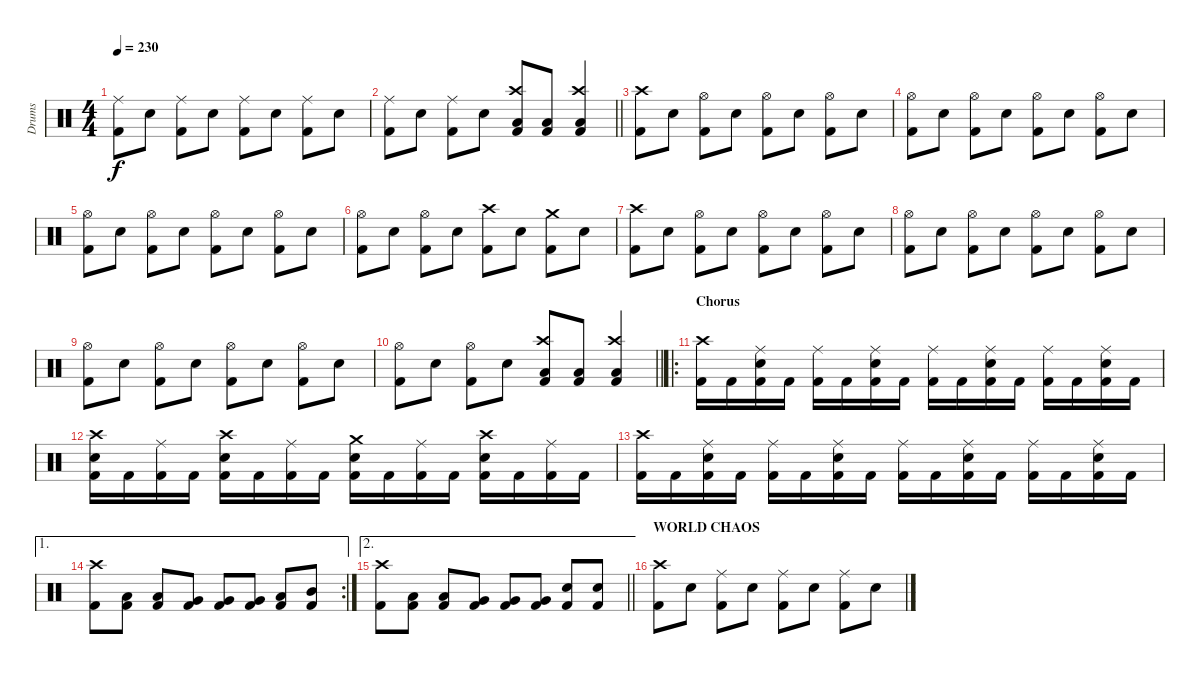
\track ("Drums" "Drums") {instrument percussion}
\staff {score}
\articulation defaults
\ts (4 4)
\tempo 230
\clef neutral
\ks c
("Ride (middle)" "Kick (hit) 2").8{dy f} "Electric Snare (hit)".8 ("Ride (middle)" "Kick (hit) 2").8 "Electric Snare (hit)".8 ("Ride (middle)" "Kick (hit) 2").8 "Electric Snare (hit)".8 ("Ride (middle)" "Kick (hit) 2").8 "Electric Snare (hit)".8 |
\barLineRight lightlight
("Ride (middle)" "Kick (hit) 2").8 "Electric Snare (hit)".8 ("Ride (middle)" "Kick (hit) 2").8 "Electric Snare (hit)".8 ("Crash high (hit)" "Low Tom (hit)" "Kick (hit) 2").8 ("Low Tom (hit)" "Kick (hit) 2").8 ("Crash high (hit)" "Low Tom (hit)" "Kick (hit) 2").4 |
\section ("" "")
("Crash high (hit)" "Kick (hit) 2").8 "Electric Snare (hit)".8 ("Hi-Hat (open)" "Kick (hit) 2").8 "Electric Snare (hit)".8 ("Hi-Hat (open)" "Kick (hit) 2").8 "Electric Snare (hit)".8 ("Hi-Hat (open)" "Kick (hit) 2").8 "Electric Snare (hit)".8 |
("Hi-Hat (open)" "Kick (hit) 2").8 "Electric Snare (hit)".8 ("Hi-Hat (open)" "Kick (hit) 2").8 "Electric Snare (hit)".8 ("Hi-Hat (open)" "Kick (hit) 2").8 "Electric Snare (hit)".8 ("Hi-Hat (open)" "Kick (hit) 2").8 "Electric Snare (hit)".8 |
("Hi-Hat (open)" "Kick (hit) 2").8 "Electric Snare (hit)".8 ("Hi-Hat (open)" "Kick (hit) 2").8 "Electric Snare (hit)".8 ("Hi-Hat (open)" "Kick (hit) 2").8 "Electric Snare (hit)".8 ("Hi-Hat (open)" "Kick (hit) 2").8 "Electric Snare (hit)".8 |
("Hi-Hat (open)" "Kick (hit) 2").8 "Electric Snare (hit)".8 ("Hi-Hat (open)" "Kick (hit) 2").8 "Electric Snare (hit)".8 ("Crash high (hit)" "Kick (hit) 2").8 "Electric Snare (hit)".8 ("Crash medium (hit)" "Kick (hit) 2").8 "Electric Snare (hit)".8 |
("Crash high (hit)" "Kick (hit) 2").8 "Electric Snare (hit)".8 ("Hi-Hat (open)" "Kick (hit) 2").8 "Electric Snare (hit)".8 ("Hi-Hat (open)" "Kick (hit) 2").8 "Electric Snare (hit)".8 ("Hi-Hat (open)" "Kick (hit) 2").8 "Electric Snare (hit)".8 |
("Hi-Hat (open)" "Kick (hit) 2").8 "Electric Snare (hit)".8 ("Hi-Hat (open)" "Kick (hit) 2").8 "Electric Snare (hit)".8 ("Hi-Hat (open)" "Kick (hit) 2").8 "Electric Snare (hit)".8 ("Hi-Hat (open)" "Kick (hit) 2").8 "Electric Snare (hit)".8 |
("Hi-Hat (open)" "Kick (hit) 2").8 "Electric Snare (hit)".8 ("Hi-Hat (open)" "Kick (hit) 2").8 "Electric Snare (hit)".8 ("Hi-Hat (open)" "Kick (hit) 2").8 "Electric Snare (hit)".8 ("Hi-Hat (open)" "Kick (hit) 2").8 "Electric Snare (hit)".8 |
\barLineRight lightlight
("Hi-Hat (open)" "Kick (hit) 2").8 "Electric Snare (hit)".8 ("Hi-Hat (open)" "Kick (hit) 2").8 "Electric Snare (hit)".8 ("Crash high (hit)" "Low Tom (hit)" "Kick (hit) 2").8 ("Low Tom (hit)" "Kick (hit) 2").8 ("Crash high (hit)" "Low Tom (hit)" "Kick (hit) 2").4 |
\ro
\section ("" "Chorus")
("Crash high (hit)" "Kick (hit) 2").16 "Kick (hit) 2".16 ("Ride (middle)" "Electric Snare (hit)" "Kick (hit) 2").16 "Kick (hit) 2".16 ("Ride (middle)" "Kick (hit) 2").16 "Kick (hit) 2".16 ("Ride (middle)" "Electric Snare (hit)" "Kick (hit) 2").16 "Kick (hit) 2".16 ("Ride (middle)" "Kick (hit) 2").16 "Kick (hit) 2".16 ("Ride (middle)" "Electric Snare (hit)" "Kick (hit) 2").16 "Kick (hit) 2".16 ("Ride (middle)" "Kick (hit) 2").16 "Kick (hit) 2".16 ("Ride (middle)" "Electric Snare (hit)" "Kick (hit) 2").16 "Kick (hit) 2".16 |
("Crash high (hit)" "Electric Snare (hit)" "Kick (hit) 2").16 "Kick (hit) 2".16 ("Ride (middle)" "Kick (hit) 2").16 "Kick (hit) 2".16 ("Crash high (hit)" "Electric Snare (hit)" "Kick (hit) 2").16 "Kick (hit) 2".16 ("Ride (middle)" "Kick (hit) 2").16 "Kick (hit) 2".16 ("Crash medium (hit)" "Electric Snare (hit)" "Kick (hit) 2").16 "Kick (hit) 2".16 ("Ride (middle)" "Kick (hit) 2").16 "Kick (hit) 2".16 ("Crash high (hit)" "Electric Snare (hit)" "Kick (hit) 2").16 "Kick (hit) 2".16 ("Ride (middle)" "Kick (hit) 2").16 "Kick (hit) 2".16 |
("Crash high (hit)" "Kick (hit) 2").16 "Kick (hit) 2".16 ("Ride (middle)" "Electric Snare (hit)" "Kick (hit) 2").16 "Kick (hit) 2".16 ("Ride (middle)" "Kick (hit) 2").16 "Kick (hit) 2".16 ("Ride (middle)" "Electric Snare (hit)" "Kick (hit) 2").16 "Kick (hit) 2".16 ("Ride (middle)" "Kick (hit) 2").16 "Kick (hit) 2".16 ("Ride (middle)" "Electric Snare (hit)" "Kick (hit) 2").16 "Kick (hit) 2".16 ("Ride (middle)" "Kick (hit) 2").16 "Kick (hit) 2".16 ("Ride (middle)" "Electric Snare (hit)" "Kick (hit) 2").16 "Kick (hit) 2".16 |
\ae 1
\rc 2
("Crash high (hit)" "Kick (hit) 2").8 ("Low Tom (hit)" "Kick (hit) 2").8 ("Low Tom (hit)" "Kick (hit) 2").8 ("Very Low Tom (hit)" "Kick (hit) 2").8 ("Very Low Tom (hit)" "Kick (hit) 2").8 ("Very Low Tom (hit)" "Kick (hit) 2").8 ("Low Tom (hit)" "Kick (hit) 2").8 ("Mid Tom (hit)" "Kick (hit) 2").8 |
\ae 2
\barLineRight lightlight
("Crash high (hit)" "Kick (hit) 2").8 ("Low Tom (hit)" "Kick (hit) 2").8 ("Low Tom (hit)" "Kick (hit) 2").8 ("Very Low Tom (hit)" "Kick (hit) 2").8 ("Very Low Tom (hit)" "Kick (hit) 2").8 ("Very Low Tom (hit)" "Kick (hit) 2").8 ("Electric Snare (hit)" "Kick (hit) 2").8 ("Electric Snare (hit)" "Kick (hit) 2").8 |
\section ("" "WORLD CHAOS")
("Crash high (hit)" "Kick (hit) 2").8 "Electric Snare (hit)".8 ("Ride (middle)" "Kick (hit) 2").8 "Electric Snare (hit)".8 ("Ride (middle)" "Kick (hit) 2").8 "Electric Snare (hit)".8 ("Ride (middle)" "Kick (hit) 2").8 "Electric Snare (hit)".8
